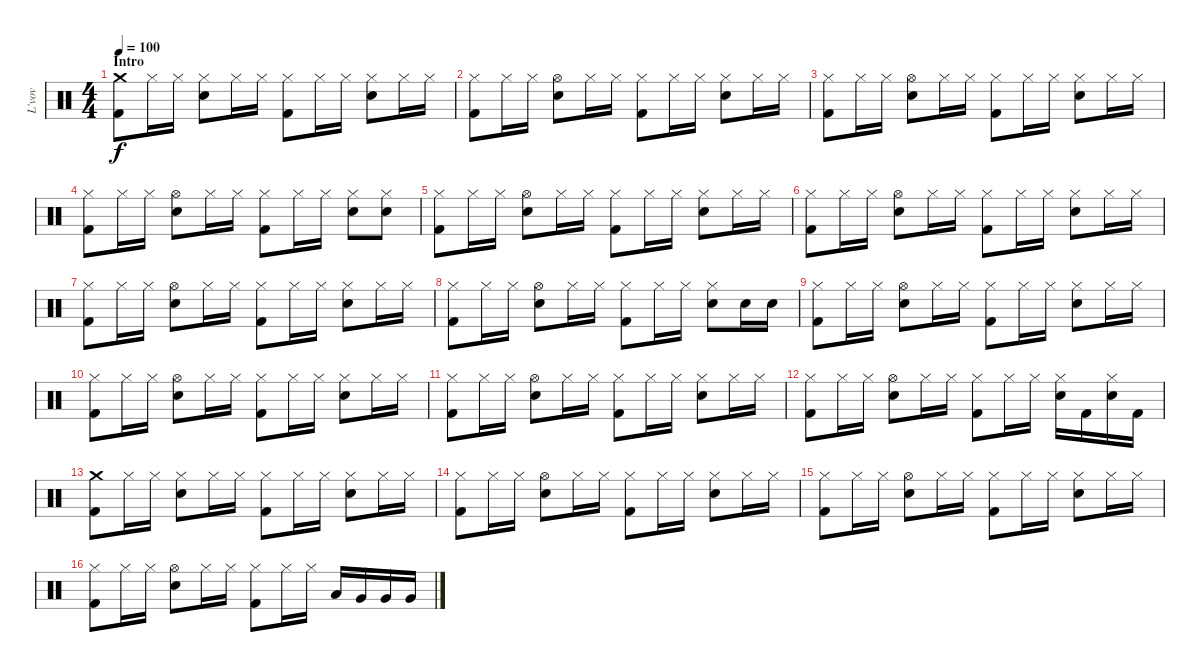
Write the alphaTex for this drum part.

\track ("L'vov" "L'vov") {instrument percussion}
\staff {score}
\articulation defaults
\ts (4 4)
\section ("" "Intro")
\tempo 100
\clef neutral
\ks c
("Kick (hit) 2" "Crash medium (hit)").8{dy f} "Hi-Hat (closed)".16 "Hi-Hat (closed)".16 ("Snare (hit) 2" "Hi-Hat (closed)").8 "Hi-Hat (closed)".16 "Hi-Hat (closed)".16 ("Kick (hit) 2" "Hi-Hat (closed)").8 "Hi-Hat (closed)".16 "Hi-Hat (closed)".16 ("Snare (hit) 2" "Hi-Hat (closed)").8 "Hi-Hat (closed)".16 "Hi-Hat (closed)".16 |
("Kick (hit) 2" "Hi-Hat (closed)").8 "Hi-Hat (closed)".16 "Hi-Hat (closed)".16 ("Snare (hit) 2" "Hi-Hat (open)").8 "Hi-Hat (closed)".16 "Hi-Hat (closed)".16 ("Kick (hit) 2" "Hi-Hat (closed)").8 "Hi-Hat (closed)".16 "Hi-Hat (closed)".16 ("Snare (hit) 2" "Hi-Hat (closed)").8 "Hi-Hat (closed)".16 "Hi-Hat (closed)".16 |
("Kick (hit) 2" "Hi-Hat (closed)").8 "Hi-Hat (closed)".16 "Hi-Hat (closed)".16 ("Snare (hit) 2" "Hi-Hat (open)").8 "Hi-Hat (closed)".16 "Hi-Hat (closed)".16 ("Kick (hit) 2" "Hi-Hat (closed)").8 "Hi-Hat (closed)".16 "Hi-Hat (closed)".16 ("Snare (hit) 2" "Hi-Hat (closed)").8 "Hi-Hat (closed)".16 "Hi-Hat (closed)".16 |
("Kick (hit) 2" "Hi-Hat (closed)").8 "Hi-Hat (closed)".16 "Hi-Hat (closed)".16 ("Snare (hit) 2" "Hi-Hat (open)").8 "Hi-Hat (closed)".16 "Hi-Hat (closed)".16 ("Kick (hit) 2" "Hi-Hat (closed)").8 "Hi-Hat (closed)".16 "Hi-Hat (closed)".16 ("Snare (hit) 2" "Hi-Hat (closed)").8 ("Snare (hit) 2" "Hi-Hat (closed)").8 |
("Kick (hit) 2" "Hi-Hat (closed)").8 "Hi-Hat (closed)".16 "Hi-Hat (closed)".16 ("Snare (hit) 2" "Hi-Hat (open)").8 "Hi-Hat (closed)".16 "Hi-Hat (closed)".16 ("Kick (hit) 2" "Hi-Hat (closed)").8 "Hi-Hat (closed)".16 "Hi-Hat (closed)".16 ("Snare (hit) 2" "Hi-Hat (closed)").8 "Hi-Hat (closed)".16 "Hi-Hat (closed)".16 |
("Kick (hit) 2" "Hi-Hat (closed)").8 "Hi-Hat (closed)".16 "Hi-Hat (closed)".16 ("Snare (hit) 2" "Hi-Hat (open)").8 "Hi-Hat (closed)".16 "Hi-Hat (closed)".16 ("Kick (hit) 2" "Hi-Hat (closed)").8 "Hi-Hat (closed)".16 "Hi-Hat (closed)".16 ("Snare (hit) 2" "Hi-Hat (closed)").8 "Hi-Hat (closed)".16 "Hi-Hat (closed)".16 |
("Kick (hit) 2" "Hi-Hat (closed)").8 "Hi-Hat (closed)".16 "Hi-Hat (closed)".16 ("Snare (hit) 2" "Hi-Hat (open)").8 "Hi-Hat (closed)".16 "Hi-Hat (closed)".16 ("Kick (hit) 2" "Hi-Hat (closed)").8 "Hi-Hat (closed)".16 "Hi-Hat (closed)".16 ("Snare (hit) 2" "Hi-Hat (closed)").8 "Hi-Hat (closed)".16 "Hi-Hat (closed)".16 |
("Kick (hit) 2" "Hi-Hat (closed)").8 "Hi-Hat (closed)".16 "Hi-Hat (closed)".16 ("Snare (hit) 2" "Hi-Hat (open)").8 "Hi-Hat (closed)".16 "Hi-Hat (closed)".16 ("Kick (hit) 2" "Hi-Hat (closed)").8 "Hi-Hat (closed)".16 "Hi-Hat (closed)".16 ("Snare (hit) 2" "Hi-Hat (closed)").8 "Snare (hit) 2".16 "Snare (hit) 2".16 |
("Kick (hit) 2" "Hi-Hat (closed)").8 "Hi-Hat (closed)".16 "Hi-Hat (closed)".16 ("Snare (hit) 2" "Hi-Hat (open)").8 "Hi-Hat (closed)".16 "Hi-Hat (closed)".16 ("Kick (hit) 2" "Hi-Hat (closed)").8 "Hi-Hat (closed)".16 "Hi-Hat (closed)".16 ("Snare (hit) 2" "Hi-Hat (closed)").8 "Hi-Hat (closed)".16 "Hi-Hat (closed)".16 |
("Kick (hit) 2" "Hi-Hat (closed)").8 "Hi-Hat (closed)".16 "Hi-Hat (closed)".16 ("Snare (hit) 2" "Hi-Hat (open)").8 "Hi-Hat (closed)".16 "Hi-Hat (closed)".16 ("Kick (hit) 2" "Hi-Hat (closed)").8 "Hi-Hat (closed)".16 "Hi-Hat (closed)".16 ("Snare (hit) 2" "Hi-Hat (closed)").8 "Hi-Hat (closed)".16 "Hi-Hat (closed)".16 |
("Kick (hit) 2" "Hi-Hat (closed)").8 "Hi-Hat (closed)".16 "Hi-Hat (closed)".16 ("Snare (hit) 2" "Hi-Hat (open)").8 "Hi-Hat (closed)".16 "Hi-Hat (closed)".16 ("Kick (hit) 2" "Hi-Hat (closed)").8 "Hi-Hat (closed)".16 "Hi-Hat (closed)".16 ("Snare (hit) 2" "Hi-Hat (closed)").8 "Hi-Hat (closed)".16 "Hi-Hat (closed)".16 |
("Kick (hit) 2" "Hi-Hat (closed)").8 "Hi-Hat (closed)".16 "Hi-Hat (closed)".16 ("Snare (hit) 2" "Hi-Hat (open)").8 "Hi-Hat (closed)".16 "Hi-Hat (closed)".16 ("Kick (hit) 2" "Hi-Hat (closed)").8 "Hi-Hat (closed)".16 "Hi-Hat (closed)".16 ("Snare (hit) 2" "Hi-Hat (closed)").16 "Kick (hit) 2".16 ("Snare (hit) 2" "Hi-Hat (closed)").16 "Kick (hit) 2".16 |
("Kick (hit) 2" "Crash medium (hit)").8 "Hi-Hat (closed)".16 "Hi-Hat (closed)".16 ("Snare (hit) 2" "Hi-Hat (closed)").8 "Hi-Hat (closed)".16 "Hi-Hat (closed)".16 ("Kick (hit) 2" "Hi-Hat (closed)").8 "Hi-Hat (closed)".16 "Hi-Hat (closed)".16 ("Snare (hit) 2" "Hi-Hat (closed)").8 "Hi-Hat (closed)".16 "Hi-Hat (closed)".16 |
("Kick (hit) 2" "Hi-Hat (closed)").8 "Hi-Hat (closed)".16 "Hi-Hat (closed)".16 ("Snare (hit) 2" "Hi-Hat (open)").8 "Hi-Hat (closed)".16 "Hi-Hat (closed)".16 ("Kick (hit) 2" "Hi-Hat (closed)").8 "Hi-Hat (closed)".16 "Hi-Hat (closed)".16 ("Snare (hit) 2" "Hi-Hat (closed)").8 "Hi-Hat (closed)".16 "Hi-Hat (closed)".16 |
("Kick (hit) 2" "Hi-Hat (closed)").8 "Hi-Hat (closed)".16 "Hi-Hat (closed)".16 ("Snare (hit) 2" "Hi-Hat (open)").8 "Hi-Hat (closed)".16 "Hi-Hat (closed)".16 ("Kick (hit) 2" "Hi-Hat (closed)").8 "Hi-Hat (closed)".16 "Hi-Hat (closed)".16 ("Snare (hit) 2" "Hi-Hat (closed)").8 "Hi-Hat (closed)".16 "Hi-Hat (closed)".16 |
("Kick (hit) 2" "Hi-Hat (closed)").8 "Hi-Hat (closed)".16 "Hi-Hat (closed)".16 ("Snare (hit) 2" "Hi-Hat (open)").8 "Hi-Hat (closed)".16 "Hi-Hat (closed)".16 ("Kick (hit) 2" "Hi-Hat (closed)").8 "Hi-Hat (closed)".16 "Hi-Hat (closed)".16 "Low Tom (hit)".16 "Very Low Tom (hit)".16 "Very Low Tom (hit)".16 "Very Low Tom (hit)".16
